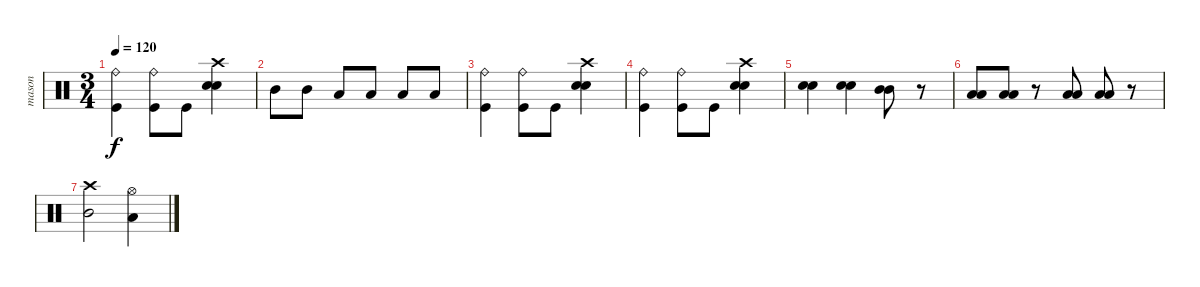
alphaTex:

\track ("mason" "mason") {instrument percussion}
\staff {score}
\articulation defaults
\ts (3 4)
\tempo 120
\clef neutral
\ks c
("Kick (hit)" "Ride (bell)").4{dy f} ("Kick (hit)" "Ride (bell)").8 "Kick (hit)".8 ("Electric Snare (hit)" "Electric Snare (hit)" "Crash high (hit)").4 |
"Mid Tom (hit)".8 "Mid Tom (hit)".8 "Low Tom (hit)".8 "Low Tom (hit)".8 "Low Floor Tom (hit)".8 "Low Floor Tom (hit)".8 |
("Kick (hit)" "Ride (bell)").4 ("Kick (hit)" "Ride (bell)").8 "Kick (hit)".8 ("Electric Snare (hit)" "Electric Snare (hit)" "Crash high (hit)").4 |
("Kick (hit)" "Ride (bell)").4 ("Kick (hit)" "Ride (bell)").8 "Kick (hit)".8 ("Electric Snare (hit)" "Electric Snare (hit)" "Crash high (hit)").4 |
("Electric Snare (hit)" "Electric Snare (hit)").4 ("Electric Snare (hit)" "Electric Snare (hit)").4 ("Mid Tom (hit)" "Mid Tom (hit)").8 r.8 |
("Low Tom (hit)" "Low Tom (hit)").8 ("Low Tom (hit)" "Low Tom (hit)").8 r.8 ("Low Floor Tom (hit)" "Low Floor Tom (hit)").8 ("Low Floor Tom (hit)" "Low Floor Tom (hit)").8 r.8 |
("Mid Tom (hit)" "Crash high (hit)").2 ("Low Floor Tom (hit)" "Hi-Hat (open)").4
